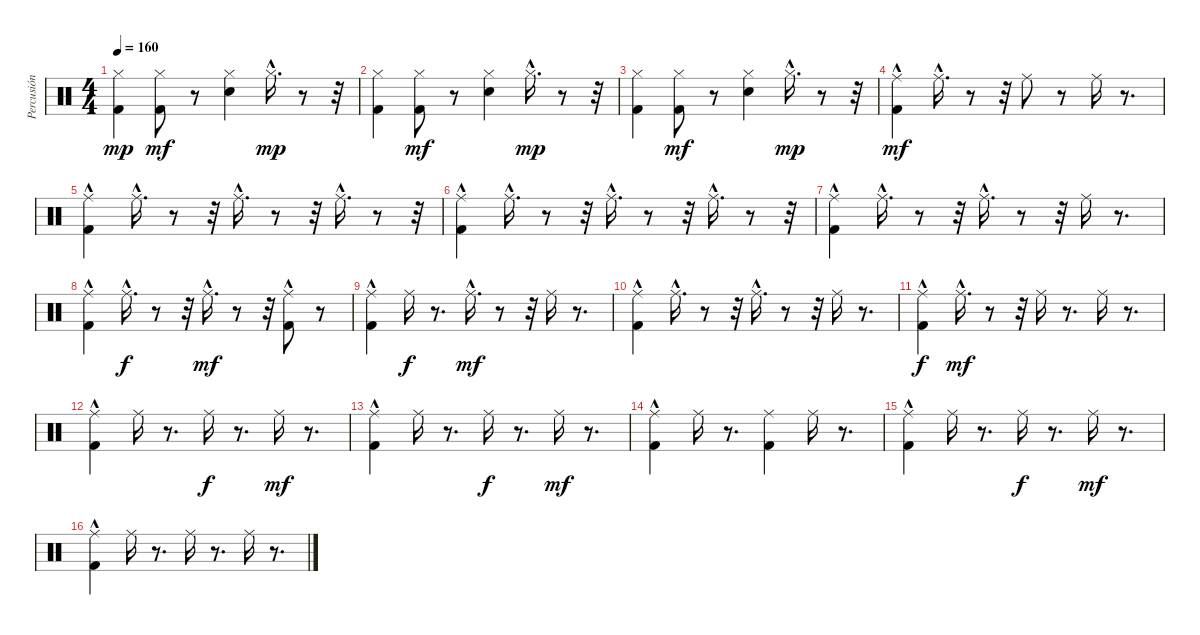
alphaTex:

\track ("Percusión" "Percusión") {instrument percussion}
\staff {score}
\articulation defaults
\ts (4 4)
\tempo 160
\clef neutral
\ks c
("Hi-Hat (closed)" "Kick (hit) 2").4{dy mp} ("Hi-Hat (closed)" "Kick (hit) 2").8{dy mf} r.8 ("Hi-Hat (closed)" "Electric Snare (hit)").4 "Hi-Hat (closed)"{hac}.16{d dy mp} r.8 r.32 |
("Hi-Hat (closed)" "Kick (hit) 2").4 ("Hi-Hat (closed)" "Kick (hit) 2").8{dy mf} r.8 ("Hi-Hat (closed)" "Electric Snare (hit)").4 "Hi-Hat (closed)"{hac}.16{d dy mp} r.8 r.32 |
("Hi-Hat (closed)" "Kick (hit) 2").4 ("Hi-Hat (closed)" "Kick (hit) 2").8{dy mf} r.8 ("Hi-Hat (closed)" "Electric Snare (hit)").4 "Hi-Hat (closed)"{hac}.16{d dy mp} r.8 r.32 |
("Ride (middle)"{hac} "Kick (hit) 2"{hac}).4{dy mf} "Ride (middle)"{hac}.16{d} r.8 r.32 "Ride (middle)".8 r.8 "Ride (middle)".16 r.8{d} |
("Kick (hit) 2"{hac} "Ride (middle)").4 "Ride (middle)"{hac}.16{d} r.8 r.32 "Ride (middle)"{hac}.16{d} r.8 r.32 "Ride (middle)"{hac}.16{d} r.8 r.32 |
("Kick (hit) 2"{hac} "Ride (middle)"{hac}).4 "Ride (middle)"{hac}.16{d} r.8 r.32 "Ride (middle)"{hac}.16{d} r.8 r.32 "Ride (middle)"{hac}.16{d} r.8 r.32 |
("Kick (hit) 2"{hac} "Ride (middle)"{hac}).4 "Ride (middle)"{hac}.16{d} r.8 r.32 "Ride (middle)"{hac}.16{d} r.8 r.32 "Ride (middle)".16 r.8{d} |
("Kick (hit) 2" "Ride (middle)"{hac}).4 "Ride (middle)"{hac}.16{d dy f} r.8 r.32 "Ride (middle)"{hac}.16{d dy mf} r.8 r.32 ("Ride (middle)"{hac} "Kick (hit) 2").8 r.8 |
("Kick (hit) 2"{hac} "Ride (middle)"{hac}).4 "Ride (middle)".16{dy f} r.8{d} "Ride (middle)"{hac}.16{d dy mf} r.8 r.32 "Ride (middle)".16 r.8{d} |
("Kick (hit) 2"{hac} "Ride (middle)"{hac}).4 "Ride (middle)"{hac}.16{d} r.8 r.32 "Ride (middle)"{hac}.16{d} r.8 r.32 "Ride (middle)".16 r.8{d} |
("Ride (middle)"{hac} "Kick (hit) 2"{hac}).4{dy f} "Ride (middle)"{hac}.16{d dy mf} r.8 r.32 "Ride (middle)".16 r.8{d} "Ride (middle)".16 r.8{d} |
("Kick (hit) 2"{hac} "Ride (middle)"{hac}).4 "Ride (middle)".16 r.8{d} "Ride (middle)".16{dy f} r.8{d} "Ride (middle)".16{dy mf} r.8{d} |
("Kick (hit) 2"{hac} "Ride (middle)"{hac}).4 "Ride (middle)".16 r.8{d} "Ride (middle)".16{dy f} r.8{d} "Ride (middle)".16{dy mf} r.8{d} |
("Kick (hit) 2" "Ride (middle)"{hac}).4 "Ride (middle)".16 r.8{d} ("Kick (hit) 2" "Ride (middle)").4 "Ride (middle)".16 r.8{d} |
("Kick (hit) 2"{hac} "Ride (middle)").4 "Ride (middle)".16 r.8{d} "Ride (middle)".16{dy f} r.8{d} "Ride (middle)".16{dy mf} r.8{d} |
("Kick (hit) 2"{hac} "Ride (middle)").4 "Ride (middle)".16 r.8{d} "Ride (middle)".16 r.8{d} "Ride (middle)".16 r.8{d}
